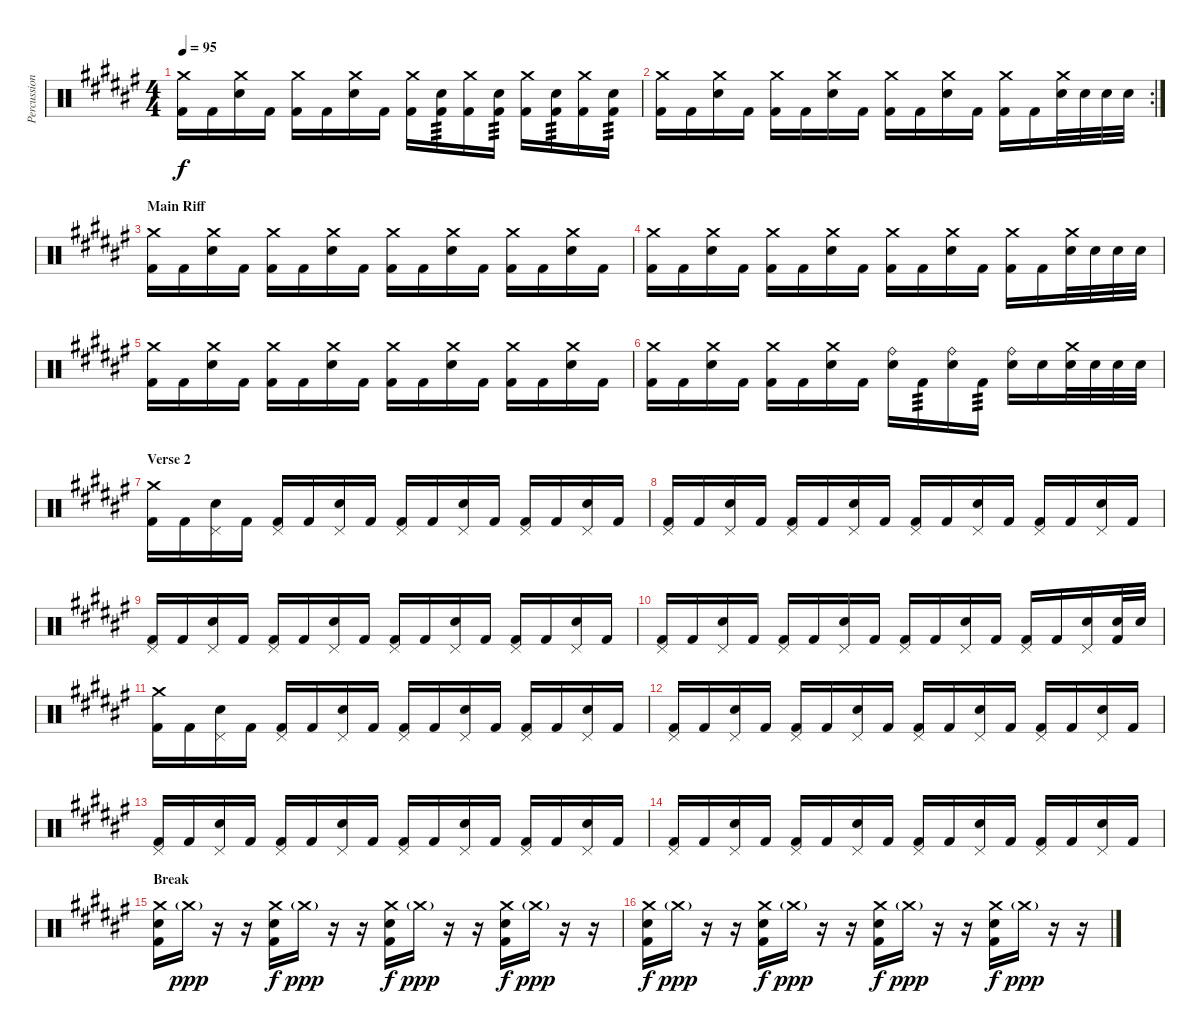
\track ("Percussions" "Percussion") {instrument percussion}
\staff {score}
\articulation defaults
\ts (4 4)
\tempo 95
\clef neutral
\ks d#minor
("Crash medium (hit)" "Kick (hit) 2").16{dy f} "Kick (hit) 2".16 ("Crash medium (hit)" "Electric Snare (hit)").16 "Kick (hit) 2".16 ("Crash medium (hit)" "Kick (hit) 2").16 "Kick (hit) 2".16 ("Crash medium (hit)" "Electric Snare (hit)").16 "Kick (hit) 2".16 ("Crash medium (hit)" "Kick (hit) 2").16 ("Electric Snare (hit)" "Kick (hit) 2").16{tp 3} ("Crash medium (hit)" "Kick (hit) 2").16 ("Electric Snare (hit)" "Kick (hit) 2").16{tp 3} ("Crash medium (hit)" "Kick (hit) 2").16 ("Electric Snare (hit)" "Kick (hit) 2").16{tp 3} ("Crash medium (hit)" "Kick (hit) 2").16 ("Electric Snare (hit)" "Kick (hit) 2").16{tp 3} |
\rc 2
("Crash medium (hit)" "Kick (hit) 2").16 "Kick (hit) 2".16 ("Crash medium (hit)" "Electric Snare (hit)").16 "Kick (hit) 2".16 ("Crash medium (hit)" "Kick (hit) 2").16 "Kick (hit) 2".16 ("Crash medium (hit)" "Electric Snare (hit)").16 "Kick (hit) 2".16 ("Crash medium (hit)" "Kick (hit) 2").16 "Kick (hit) 2".16 ("Crash medium (hit)" "Electric Snare (hit)").16 "Kick (hit) 2".16 ("Crash medium (hit)" "Kick (hit) 2").16 "Kick (hit) 2".16 ("Crash medium (hit)" "Electric Snare (hit)").32 "Electric Snare (hit)".32 "Electric Snare (hit)".32 "Electric Snare (hit)".32 |
\section ("" "Main Riff")
("Crash medium (hit)" "Kick (hit) 2").16 "Kick (hit) 2".16 ("Crash medium (hit)" "Electric Snare (hit)").16 "Kick (hit) 2".16 ("Crash medium (hit)" "Kick (hit) 2").16 "Kick (hit) 2".16 ("Crash medium (hit)" "Electric Snare (hit)").16 "Kick (hit) 2".16 ("Crash medium (hit)" "Kick (hit) 2").16 "Kick (hit) 2".16 ("Crash medium (hit)" "Electric Snare (hit)").16 "Kick (hit) 2".16 ("Crash medium (hit)" "Kick (hit) 2").16 "Kick (hit) 2".16 ("Crash medium (hit)" "Electric Snare (hit)").16 "Kick (hit) 2".16 |
("Crash medium (hit)" "Kick (hit) 2").16 "Kick (hit) 2".16 ("Crash medium (hit)" "Electric Snare (hit)").16 "Kick (hit) 2".16 ("Crash medium (hit)" "Kick (hit) 2").16 "Kick (hit) 2".16 ("Crash medium (hit)" "Electric Snare (hit)").16 "Kick (hit) 2".16 ("Crash medium (hit)" "Kick (hit) 2").16 "Kick (hit) 2".16 ("Crash medium (hit)" "Electric Snare (hit)").16 "Kick (hit) 2".16 ("Crash medium (hit)" "Kick (hit) 2").16 "Kick (hit) 2".16 ("Crash medium (hit)" "Electric Snare (hit)").32 "Electric Snare (hit)".32 "Electric Snare (hit)".32 "Electric Snare (hit)".32 |
("Crash medium (hit)" "Kick (hit) 2").16 "Kick (hit) 2".16 ("Crash medium (hit)" "Electric Snare (hit)").16 "Kick (hit) 2".16 ("Crash medium (hit)" "Kick (hit) 2").16 "Kick (hit) 2".16 ("Crash medium (hit)" "Electric Snare (hit)").16 "Kick (hit) 2".16 ("Crash medium (hit)" "Kick (hit) 2").16 "Kick (hit) 2".16 ("Crash medium (hit)" "Electric Snare (hit)").16 "Kick (hit) 2".16 ("Crash medium (hit)" "Kick (hit) 2").16 "Kick (hit) 2".16 ("Crash medium (hit)" "Electric Snare (hit)").16 "Kick (hit) 2".16 |
("Crash medium (hit)" "Kick (hit) 2").16 "Kick (hit) 2".16 ("Crash medium (hit)" "Electric Snare (hit)").16 "Kick (hit) 2".16 ("Crash medium (hit)" "Kick (hit) 2").16 "Kick (hit) 2".16 ("Crash medium (hit)" "Electric Snare (hit)").16 "Kick (hit) 2".16 ("Ride (bell)" "Electric Snare (hit)").16 "Kick (hit) 2".16{tp 3} ("Ride (bell)" "Electric Snare (hit)").16 "Kick (hit) 2".16{tp 3} ("Ride (bell)" "Electric Snare (hit)").16 "Electric Snare (hit)".16 ("Crash medium (hit)" "Electric Snare (hit)").32 "Electric Snare (hit)".32 "Electric Snare (hit)".32 "Electric Snare (hit)".32 |
\section ("" "Verse 2")
("Crash medium (hit)" "Kick (hit) 2").16 "Kick (hit) 2".16 ("Pedal Hi-Hat (hit)" "Electric Snare (hit)").16 "Kick (hit) 2".16 ("Pedal Hi-Hat (hit)" "Kick (hit) 2").16 "Kick (hit) 2".16 ("Pedal Hi-Hat (hit)" "Electric Snare (hit)").16 "Kick (hit) 2".16 ("Pedal Hi-Hat (hit)" "Kick (hit) 2").16 "Kick (hit) 2".16 ("Pedal Hi-Hat (hit)" "Electric Snare (hit)").16 "Kick (hit) 2".16 ("Pedal Hi-Hat (hit)" "Kick (hit) 2").16 "Kick (hit) 2".16 ("Pedal Hi-Hat (hit)" "Electric Snare (hit)").16 "Kick (hit) 2".16 |
("Pedal Hi-Hat (hit)" "Kick (hit) 2").16 "Kick (hit) 2".16 ("Pedal Hi-Hat (hit)" "Electric Snare (hit)").16 "Kick (hit) 2".16 ("Pedal Hi-Hat (hit)" "Kick (hit) 2").16 "Kick (hit) 2".16 ("Pedal Hi-Hat (hit)" "Electric Snare (hit)").16 "Kick (hit) 2".16 ("Pedal Hi-Hat (hit)" "Kick (hit) 2").16 "Kick (hit) 2".16 ("Pedal Hi-Hat (hit)" "Electric Snare (hit)").16 "Kick (hit) 2".16 ("Pedal Hi-Hat (hit)" "Kick (hit) 2").16 "Kick (hit) 2".16 ("Pedal Hi-Hat (hit)" "Electric Snare (hit)").16 "Kick (hit) 2".16 |
("Pedal Hi-Hat (hit)" "Kick (hit) 2").16 "Kick (hit) 2".16 ("Pedal Hi-Hat (hit)" "Electric Snare (hit)").16 "Kick (hit) 2".16 ("Pedal Hi-Hat (hit)" "Kick (hit) 2").16 "Kick (hit) 2".16 ("Pedal Hi-Hat (hit)" "Electric Snare (hit)").16 "Kick (hit) 2".16 ("Pedal Hi-Hat (hit)" "Kick (hit) 2").16 "Kick (hit) 2".16 ("Pedal Hi-Hat (hit)" "Electric Snare (hit)").16 "Kick (hit) 2".16 ("Pedal Hi-Hat (hit)" "Kick (hit) 2").16 "Kick (hit) 2".16 ("Pedal Hi-Hat (hit)" "Electric Snare (hit)").16 "Kick (hit) 2".16 |
("Pedal Hi-Hat (hit)" "Kick (hit) 2").16 "Kick (hit) 2".16 ("Pedal Hi-Hat (hit)" "Electric Snare (hit)").16 "Kick (hit) 2".16 ("Pedal Hi-Hat (hit)" "Kick (hit) 2").16 "Kick (hit) 2".16 ("Pedal Hi-Hat (hit)" "Electric Snare (hit)").16 "Kick (hit) 2".16 ("Pedal Hi-Hat (hit)" "Kick (hit) 2").16 "Kick (hit) 2".16 ("Pedal Hi-Hat (hit)" "Electric Snare (hit)").16 "Kick (hit) 2".16 ("Pedal Hi-Hat (hit)" "Kick (hit) 2").16 "Kick (hit) 2".16 ("Pedal Hi-Hat (hit)" "Electric Snare (hit)").16 ("Electric Snare (hit)" "Kick (hit) 2").32 "Electric Snare (hit)".32 |
("Crash medium (hit)" "Kick (hit) 2").16 "Kick (hit) 2".16 ("Pedal Hi-Hat (hit)" "Electric Snare (hit)").16 "Kick (hit) 2".16 ("Pedal Hi-Hat (hit)" "Kick (hit) 2").16 "Kick (hit) 2".16 ("Pedal Hi-Hat (hit)" "Electric Snare (hit)").16 "Kick (hit) 2".16 ("Pedal Hi-Hat (hit)" "Kick (hit) 2").16 "Kick (hit) 2".16 ("Pedal Hi-Hat (hit)" "Electric Snare (hit)").16 "Kick (hit) 2".16 ("Pedal Hi-Hat (hit)" "Kick (hit) 2").16 "Kick (hit) 2".16 ("Pedal Hi-Hat (hit)" "Electric Snare (hit)").16 "Kick (hit) 2".16 |
("Pedal Hi-Hat (hit)" "Kick (hit) 2").16 "Kick (hit) 2".16 ("Pedal Hi-Hat (hit)" "Electric Snare (hit)").16 "Kick (hit) 2".16 ("Pedal Hi-Hat (hit)" "Kick (hit) 2").16 "Kick (hit) 2".16 ("Pedal Hi-Hat (hit)" "Electric Snare (hit)").16 "Kick (hit) 2".16 ("Pedal Hi-Hat (hit)" "Kick (hit) 2").16 "Kick (hit) 2".16 ("Pedal Hi-Hat (hit)" "Electric Snare (hit)").16 "Kick (hit) 2".16 ("Pedal Hi-Hat (hit)" "Kick (hit) 2").16 "Kick (hit) 2".16 ("Pedal Hi-Hat (hit)" "Electric Snare (hit)").16 "Kick (hit) 2".16 |
("Pedal Hi-Hat (hit)" "Kick (hit) 2").16 "Kick (hit) 2".16 ("Pedal Hi-Hat (hit)" "Electric Snare (hit)").16 "Kick (hit) 2".16 ("Pedal Hi-Hat (hit)" "Kick (hit) 2").16 "Kick (hit) 2".16 ("Pedal Hi-Hat (hit)" "Electric Snare (hit)").16 "Kick (hit) 2".16 ("Pedal Hi-Hat (hit)" "Kick (hit) 2").16 "Kick (hit) 2".16 ("Pedal Hi-Hat (hit)" "Electric Snare (hit)").16 "Kick (hit) 2".16 ("Pedal Hi-Hat (hit)" "Kick (hit) 2").16 "Kick (hit) 2".16 ("Pedal Hi-Hat (hit)" "Electric Snare (hit)").16 "Kick (hit) 2".16 |
("Pedal Hi-Hat (hit)" "Kick (hit) 2").16 "Kick (hit) 2".16 ("Pedal Hi-Hat (hit)" "Electric Snare (hit)").16 "Kick (hit) 2".16 ("Pedal Hi-Hat (hit)" "Kick (hit) 2").16 "Kick (hit) 2".16 ("Pedal Hi-Hat (hit)" "Electric Snare (hit)").16 "Kick (hit) 2".16 ("Pedal Hi-Hat (hit)" "Kick (hit) 2").16 "Kick (hit) 2".16 ("Pedal Hi-Hat (hit)" "Electric Snare (hit)").16 "Kick (hit) 2".16 ("Pedal Hi-Hat (hit)" "Kick (hit) 2").16 "Kick (hit) 2".16 ("Pedal Hi-Hat (hit)" "Electric Snare (hit)").16 "Kick (hit) 2".16 |
\section ("" "Break")
("Crash medium (hit)" "Electric Snare (hit)" "Kick (hit) 2").16 "Crash medium (hit)"{g}.16{dy ppp} r.16 r.16 ("Crash medium (hit)" "Electric Snare (hit)" "Kick (hit) 2").16{dy f} "Crash medium (hit)"{g}.16{dy ppp} r.16 r.16 ("Crash medium (hit)" "Electric Snare (hit)" "Kick (hit) 2").16{dy f} "Crash medium (hit)"{g}.16{dy ppp} r.16 r.16 ("Crash medium (hit)" "Electric Snare (hit)" "Kick (hit) 2").16{dy f} "Crash medium (hit)"{g}.16{dy ppp} r.16 r.16 |
("Crash medium (hit)" "Electric Snare (hit)" "Kick (hit) 2").16{dy f} "Crash medium (hit)"{g}.16{dy ppp} r.16 r.16 ("Crash medium (hit)" "Electric Snare (hit)" "Kick (hit) 2").16{dy f} "Crash medium (hit)"{g}.16{dy ppp} r.16 r.16 ("Crash medium (hit)" "Electric Snare (hit)" "Kick (hit) 2").16{dy f} "Crash medium (hit)"{g}.16{dy ppp} r.16 r.16 ("Crash medium (hit)" "Electric Snare (hit)" "Kick (hit) 2").16{dy f} "Crash medium (hit)"{g}.16{dy ppp} r.16 r.16
